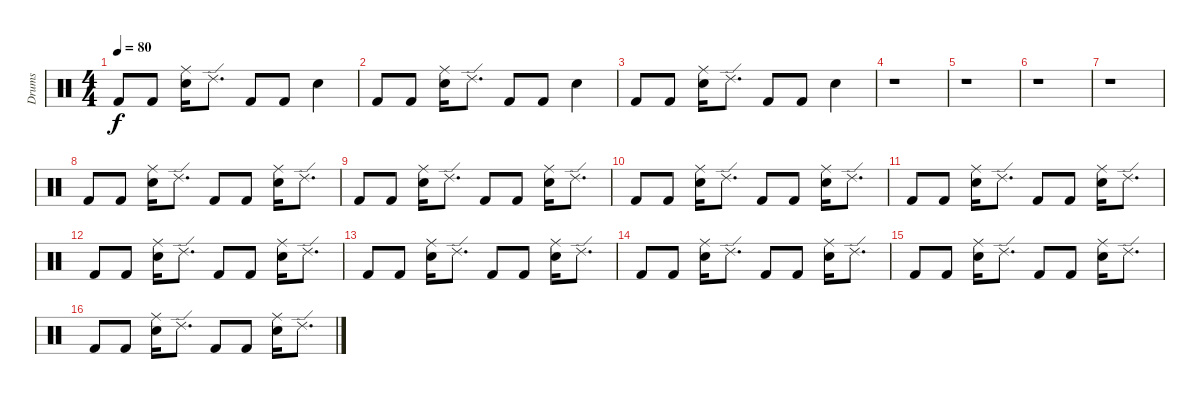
\track ("Drums" "Drums") {instrument percussion}
\staff {score}
\articulation defaults
\ts (4 4)
\tempo 80
\clef neutral
\ks c "Kick (hit) 2".8{dy f} "Kick (hit) 2".8
("Ride (middle)" "Snare (hit) 2").16 "Ride (edge) 2".8{d} "Kick (hit) 2".8 "Kick (hit) 2".8 "Snare (hit) 2".4 |
"Kick (hit) 2".8 "Kick (hit) 2".8 ("Ride (middle)" "Snare (hit) 2").16 "Ride (edge) 2".8{d} "Kick (hit) 2".8 "Kick (hit) 2".8 "Snare (hit) 2".4 |
"Kick (hit) 2".8 "Kick (hit) 2".8 ("Ride (middle)" "Snare (hit) 2").16 "Ride (edge) 2".8{d} "Kick (hit) 2".8 "Kick (hit) 2".8 "Snare (hit) 2".4 |
r.1 |
r.1 |
r.1 |
r.1 |
"Kick (hit) 2".8 "Kick (hit) 2".8 ("Ride (middle)" "Snare (hit) 2").16 "Ride (edge) 2".8{d} "Kick (hit) 2".8 "Kick (hit) 2".8 ("Ride (middle)" "Snare (hit) 2").16 "Ride (edge) 2".8{d} |
"Kick (hit) 2".8 "Kick (hit) 2".8 ("Ride (middle)" "Snare (hit) 2").16 "Ride (edge) 2".8{d} "Kick (hit) 2".8 "Kick (hit) 2".8 ("Ride (middle)" "Snare (hit) 2").16 "Ride (edge) 2".8{d} |
"Kick (hit) 2".8 "Kick (hit) 2".8 ("Ride (middle)" "Snare (hit) 2").16 "Ride (edge) 2".8{d} "Kick (hit) 2".8 "Kick (hit) 2".8 ("Ride (middle)" "Snare (hit) 2").16 "Ride (edge) 2".8{d} |
"Kick (hit) 2".8 "Kick (hit) 2".8 ("Ride (middle)" "Snare (hit) 2").16 "Ride (edge) 2".8{d} "Kick (hit) 2".8 "Kick (hit) 2".8 ("Ride (middle)" "Snare (hit) 2").16 "Ride (edge) 2".8{d} |
"Kick (hit) 2".8 "Kick (hit) 2".8 ("Ride (middle)" "Snare (hit) 2").16 "Ride (edge) 2".8{d} "Kick (hit) 2".8 "Kick (hit) 2".8 ("Ride (middle)" "Snare (hit) 2").16 "Ride (edge) 2".8{d} |
"Kick (hit) 2".8 "Kick (hit) 2".8 ("Ride (middle)" "Snare (hit) 2").16 "Ride (edge) 2".8{d} "Kick (hit) 2".8 "Kick (hit) 2".8 ("Ride (middle)" "Snare (hit) 2").16 "Ride (edge) 2".8{d} |
"Kick (hit) 2".8 "Kick (hit) 2".8 ("Ride (middle)" "Snare (hit) 2").16 "Ride (edge) 2".8{d} "Kick (hit) 2".8 "Kick (hit) 2".8 ("Ride (middle)" "Snare (hit) 2").16 "Ride (edge) 2".8{d} |
"Kick (hit) 2".8 "Kick (hit) 2".8 ("Ride (middle)" "Snare (hit) 2").16 "Ride (edge) 2".8{d} "Kick (hit) 2".8 "Kick (hit) 2".8 ("Ride (middle)" "Snare (hit) 2").16 "Ride (edge) 2".8{d} |
"Kick (hit) 2".8 "Kick (hit) 2".8 ("Ride (middle)" "Snare (hit) 2").16 "Ride (edge) 2".8{d} "Kick (hit) 2".8 "Kick (hit) 2".8 ("Ride (middle)" "Snare (hit) 2").16 "Ride (edge) 2".8{d}
